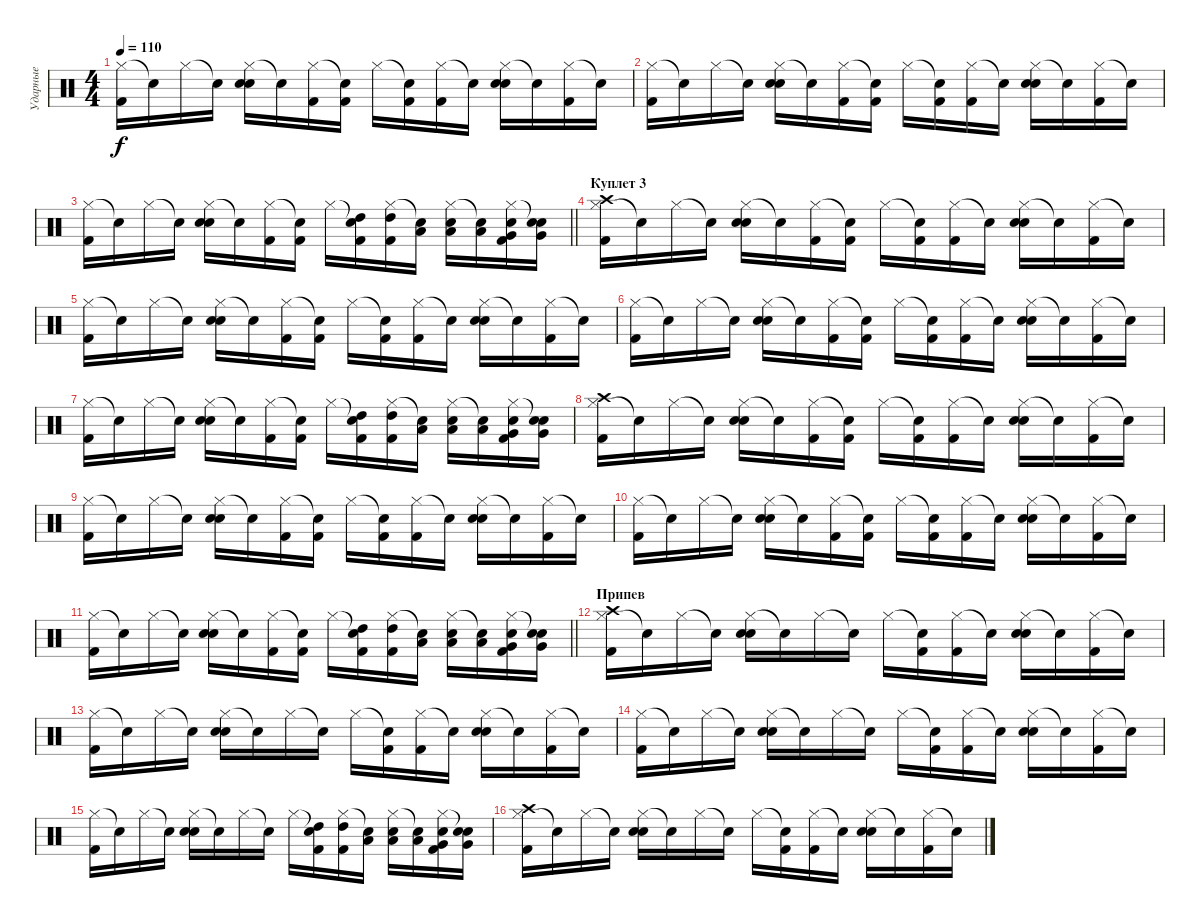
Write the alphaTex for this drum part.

\track ("Ударные" "Ударные") {instrument percussion}
\staff {score}
\articulation defaults
\ts (4 4)
\tempo 110
\clef neutral
\ks c
("Hi-Hat (closed)" "Kick (hit) 2").16{dy f} "Snare (hit)"{t}.16 "Hi-Hat (closed)".16 "Snare (hit)"{t}.16 ("Hi-Hat (closed)" "Snare (hit) 2" "Electric Snare (hit)").16 "Snare (hit)"{t}.16 ("Hi-Hat (closed)" "Kick (hit) 2").16 ("Snare (hit)"{t} "Kick (hit) 2").16 "Hi-Hat (closed)".16 ("Snare (hit)"{t} "Kick (hit) 2").16 ("Hi-Hat (closed)" "Kick (hit) 2").16 "Snare (hit)"{t}.16 ("Hi-Hat (closed)" "Electric Snare (hit)" "Snare (hit) 2").16 "Snare (hit)"{t}.16 ("Hi-Hat (closed)" "Kick (hit) 2").16 "Snare (hit)"{t}.16 |
("Hi-Hat (closed)" "Kick (hit) 2").16 "Snare (hit)"{t}.16 "Hi-Hat (closed)".16 "Snare (hit)"{t}.16 ("Hi-Hat (closed)" "Snare (hit) 2" "Electric Snare (hit)").16 "Snare (hit)"{t}.16 ("Hi-Hat (closed)" "Kick (hit) 2").16 ("Snare (hit)"{t} "Kick (hit) 2").16 "Hi-Hat (closed)".16 ("Snare (hit)"{t} "Kick (hit) 2").16 ("Hi-Hat (closed)" "Kick (hit) 2").16 "Snare (hit)"{t}.16 ("Hi-Hat (closed)" "Electric Snare (hit)" "Snare (hit) 2").16 "Snare (hit)"{t}.16 ("Hi-Hat (closed)" "Kick (hit) 2").16 "Snare (hit)"{t}.16 |
\barLineRight lightlight
("Hi-Hat (closed)" "Kick (hit) 2").16 "Snare (hit)"{t}.16 "Hi-Hat (closed)".16 "Snare (hit)"{t}.16 ("Hi-Hat (closed)" "Snare (hit) 2" "Electric Snare (hit)").16 "Snare (hit)"{t}.16 ("Hi-Hat (closed)" "Kick (hit) 2").16 ("Snare (hit)"{t} "Kick (hit) 2").16 "Hi-Hat (closed)".16 ("Snare (hit)"{t} "High Tom (hit)" "Kick (hit) 2").16 ("Hi-Hat (closed)" "High Tom (hit)" "Kick (hit) 2").16 ("Snare (hit)"{t} "Low Tom (hit)").16 ("Hi-Hat (closed)" "Low Tom (hit)" "Snare (hit) 2").16 ("Snare (hit)"{t} "Low Tom (hit)").16 ("Hi-Hat (closed)" "Very Low Tom (hit)" "Electric Snare (hit)" "Kick (hit) 2").16 ("Snare (hit)"{t} "Very Low Tom (hit)" "Electric Snare (hit)").16 |
\section ("" "Куплет 3")
("Hi-Hat (closed)" "Crash high (hit)" "Kick (hit) 2").16 "Snare (hit)"{t}.16 "Hi-Hat (closed)".16 "Snare (hit)"{t}.16 ("Hi-Hat (closed)" "Snare (hit) 2" "Electric Snare (hit)").16 "Snare (hit)"{t}.16 ("Hi-Hat (closed)" "Kick (hit) 2").16 ("Snare (hit)"{t} "Kick (hit) 2").16 "Hi-Hat (closed)".16 ("Snare (hit)"{t} "Kick (hit) 2").16 ("Hi-Hat (closed)" "Kick (hit) 2").16 "Snare (hit)"{t}.16 ("Hi-Hat (closed)" "Electric Snare (hit)" "Snare (hit) 2").16 "Snare (hit)"{t}.16 ("Hi-Hat (closed)" "Kick (hit) 2").16 "Snare (hit)"{t}.16 |
("Hi-Hat (closed)" "Kick (hit) 2").16 "Snare (hit)"{t}.16 "Hi-Hat (closed)".16 "Snare (hit)"{t}.16 ("Hi-Hat (closed)" "Snare (hit) 2" "Electric Snare (hit)").16 "Snare (hit)"{t}.16 ("Hi-Hat (closed)" "Kick (hit) 2").16 ("Snare (hit)"{t} "Kick (hit) 2").16 "Hi-Hat (closed)".16 ("Snare (hit)"{t} "Kick (hit) 2").16 ("Hi-Hat (closed)" "Kick (hit) 2").16 "Snare (hit)"{t}.16 ("Hi-Hat (closed)" "Electric Snare (hit)" "Snare (hit) 2").16 "Snare (hit)"{t}.16 ("Hi-Hat (closed)" "Kick (hit) 2").16 "Snare (hit)"{t}.16 |
("Hi-Hat (closed)" "Kick (hit) 2").16 "Snare (hit)"{t}.16 "Hi-Hat (closed)".16 "Snare (hit)"{t}.16 ("Hi-Hat (closed)" "Snare (hit) 2" "Electric Snare (hit)").16 "Snare (hit)"{t}.16 ("Hi-Hat (closed)" "Kick (hit) 2").16 ("Snare (hit)"{t} "Kick (hit) 2").16 "Hi-Hat (closed)".16 ("Snare (hit)"{t} "Kick (hit) 2").16 ("Hi-Hat (closed)" "Kick (hit) 2").16 "Snare (hit)"{t}.16 ("Hi-Hat (closed)" "Electric Snare (hit)" "Snare (hit) 2").16 "Snare (hit)"{t}.16 ("Hi-Hat (closed)" "Kick (hit) 2").16 "Snare (hit)"{t}.16 |
("Hi-Hat (closed)" "Kick (hit) 2").16 "Snare (hit)"{t}.16 "Hi-Hat (closed)".16 "Snare (hit)"{t}.16 ("Hi-Hat (closed)" "Snare (hit) 2" "Electric Snare (hit)").16 "Snare (hit)"{t}.16 ("Hi-Hat (closed)" "Kick (hit) 2").16 ("Snare (hit)"{t} "Kick (hit) 2").16 "Hi-Hat (closed)".16 ("Snare (hit)"{t} "High Tom (hit)" "Kick (hit) 2").16 ("Hi-Hat (closed)" "High Tom (hit)" "Kick (hit) 2").16 ("Snare (hit)"{t} "Low Tom (hit)").16 ("Hi-Hat (closed)" "Low Tom (hit)" "Snare (hit) 2").16 ("Snare (hit)"{t} "Low Tom (hit)").16 ("Hi-Hat (closed)" "Very Low Tom (hit)" "Electric Snare (hit)" "Kick (hit) 2").16 ("Snare (hit)"{t} "Very Low Tom (hit)" "Electric Snare (hit)").16 |
("Hi-Hat (closed)" "Crash high (hit)" "Kick (hit) 2").16 "Snare (hit)"{t}.16 "Hi-Hat (closed)".16 "Snare (hit)"{t}.16 ("Hi-Hat (closed)" "Snare (hit) 2" "Electric Snare (hit)").16 "Snare (hit)"{t}.16 ("Hi-Hat (closed)" "Kick (hit) 2").16 ("Snare (hit)"{t} "Kick (hit) 2").16 "Hi-Hat (closed)".16 ("Snare (hit)"{t} "Kick (hit) 2").16 ("Hi-Hat (closed)" "Kick (hit) 2").16 "Snare (hit)"{t}.16 ("Hi-Hat (closed)" "Electric Snare (hit)" "Snare (hit) 2").16 "Snare (hit)"{t}.16 ("Hi-Hat (closed)" "Kick (hit) 2").16 "Snare (hit)"{t}.16 |
("Hi-Hat (closed)" "Kick (hit) 2").16 "Snare (hit)"{t}.16 "Hi-Hat (closed)".16 "Snare (hit)"{t}.16 ("Hi-Hat (closed)" "Snare (hit) 2" "Electric Snare (hit)").16 "Snare (hit)"{t}.16 ("Hi-Hat (closed)" "Kick (hit) 2").16 ("Snare (hit)"{t} "Kick (hit) 2").16 "Hi-Hat (closed)".16 ("Snare (hit)"{t} "Kick (hit) 2").16 ("Hi-Hat (closed)" "Kick (hit) 2").16 "Snare (hit)"{t}.16 ("Hi-Hat (closed)" "Electric Snare (hit)" "Snare (hit) 2").16 "Snare (hit)"{t}.16 ("Hi-Hat (closed)" "Kick (hit) 2").16 "Snare (hit)"{t}.16 |
("Hi-Hat (closed)" "Kick (hit) 2").16 "Snare (hit)"{t}.16 "Hi-Hat (closed)".16 "Snare (hit)"{t}.16 ("Hi-Hat (closed)" "Snare (hit) 2" "Electric Snare (hit)").16 "Snare (hit)"{t}.16 ("Hi-Hat (closed)" "Kick (hit) 2").16 ("Snare (hit)"{t} "Kick (hit) 2").16 "Hi-Hat (closed)".16 ("Snare (hit)"{t} "Kick (hit) 2").16 ("Hi-Hat (closed)" "Kick (hit) 2").16 "Snare (hit)"{t}.16 ("Hi-Hat (closed)" "Electric Snare (hit)" "Snare (hit) 2").16 "Snare (hit)"{t}.16 ("Hi-Hat (closed)" "Kick (hit) 2").16 "Snare (hit)"{t}.16 |
\barLineRight lightlight
("Hi-Hat (closed)" "Kick (hit) 2").16 "Snare (hit)"{t}.16 "Hi-Hat (closed)".16 "Snare (hit)"{t}.16 ("Hi-Hat (closed)" "Snare (hit) 2" "Electric Snare (hit)").16 "Snare (hit)"{t}.16 ("Hi-Hat (closed)" "Kick (hit) 2").16 ("Snare (hit)"{t} "Kick (hit) 2").16 "Hi-Hat (closed)".16 ("Snare (hit)"{t} "High Tom (hit)" "Kick (hit) 2").16 ("Hi-Hat (closed)" "High Tom (hit)" "Kick (hit) 2").16 ("Snare (hit)"{t} "Low Tom (hit)").16 ("Hi-Hat (closed)" "Low Tom (hit)" "Snare (hit) 2").16 ("Snare (hit)"{t} "Low Tom (hit)").16 ("Hi-Hat (closed)" "Very Low Tom (hit)" "Electric Snare (hit)" "Kick (hit) 2").16 ("Snare (hit)"{t} "Very Low Tom (hit)" "Electric Snare (hit)").16 |
\section ("" "Припев")
("Hi-Hat (closed)" "Crash high (hit)" "Kick (hit) 2").16 "Snare (hit)"{t}.16 "Hi-Hat (closed)".16 "Snare (hit)"{t}.16 ("Hi-Hat (closed)" "Snare (hit) 2" "Electric Snare (hit)").16 "Snare (hit)"{t}.16 "Hi-Hat (closed)".16 "Snare (hit)"{t}.16 "Hi-Hat (closed)".16 ("Snare (hit)"{t} "Kick (hit) 2").16 ("Hi-Hat (closed)" "Kick (hit) 2").16 "Snare (hit)"{t}.16 ("Hi-Hat (closed)" "Electric Snare (hit)" "Snare (hit) 2").16 "Snare (hit)"{t}.16 ("Hi-Hat (closed)" "Kick (hit) 2").16 "Snare (hit)"{t}.16 |
("Hi-Hat (closed)" "Kick (hit) 2").16 "Snare (hit)"{t}.16 "Hi-Hat (closed)".16 "Snare (hit)"{t}.16 ("Hi-Hat (closed)" "Snare (hit) 2" "Electric Snare (hit)").16 "Snare (hit)"{t}.16 "Hi-Hat (closed)".16 "Snare (hit)"{t}.16 "Hi-Hat (closed)".16 ("Snare (hit)"{t} "Kick (hit) 2").16 ("Hi-Hat (closed)" "Kick (hit) 2").16 "Snare (hit)"{t}.16 ("Hi-Hat (closed)" "Electric Snare (hit)" "Snare (hit) 2").16 "Snare (hit)"{t}.16 ("Hi-Hat (closed)" "Kick (hit) 2").16 "Snare (hit)"{t}.16 |
("Hi-Hat (closed)" "Kick (hit) 2").16 "Snare (hit)"{t}.16 "Hi-Hat (closed)".16 "Snare (hit)"{t}.16 ("Hi-Hat (closed)" "Snare (hit) 2" "Electric Snare (hit)").16 "Snare (hit)"{t}.16 "Hi-Hat (closed)".16 "Snare (hit)"{t}.16 "Hi-Hat (closed)".16 ("Snare (hit)"{t} "Kick (hit) 2").16 ("Hi-Hat (closed)" "Kick (hit) 2").16 "Snare (hit)"{t}.16 ("Hi-Hat (closed)" "Electric Snare (hit)" "Snare (hit) 2").16 "Snare (hit)"{t}.16 ("Hi-Hat (closed)" "Kick (hit) 2").16 "Snare (hit)"{t}.16 |
("Hi-Hat (closed)" "Kick (hit) 2").16 "Snare (hit)"{t}.16 "Hi-Hat (closed)".16 "Snare (hit)"{t}.16 ("Hi-Hat (closed)" "Snare (hit) 2" "Electric Snare (hit)").16 "Snare (hit)"{t}.16 "Hi-Hat (closed)".16 "Snare (hit)"{t}.16 "Hi-Hat (closed)".16 ("Snare (hit)"{t} "High Tom (hit)" "Kick (hit) 2").16 ("Hi-Hat (closed)" "High Tom (hit)" "Kick (hit) 2").16 ("Snare (hit)"{t} "Low Tom (hit)").16 ("Hi-Hat (closed)" "Low Tom (hit)" "Snare (hit) 2").16 ("Snare (hit)"{t} "Low Tom (hit)").16 ("Hi-Hat (closed)" "Very Low Tom (hit)" "Electric Snare (hit)" "Kick (hit) 2").16 ("Snare (hit)"{t} "Very Low Tom (hit)" "Electric Snare (hit)").16 |
("Hi-Hat (closed)" "Crash high (hit)" "Kick (hit) 2").16 "Snare (hit)"{t}.16 "Hi-Hat (closed)".16 "Snare (hit)"{t}.16 ("Hi-Hat (closed)" "Snare (hit) 2" "Electric Snare (hit)").16 "Snare (hit)"{t}.16 "Hi-Hat (closed)".16 "Snare (hit)"{t}.16 "Hi-Hat (closed)".16 ("Snare (hit)"{t} "Kick (hit) 2").16 ("Hi-Hat (closed)" "Kick (hit) 2").16 "Snare (hit)"{t}.16 ("Hi-Hat (closed)" "Electric Snare (hit)" "Snare (hit) 2").16 "Snare (hit)"{t}.16 ("Hi-Hat (closed)" "Kick (hit) 2").16 "Snare (hit)"{t}.16
